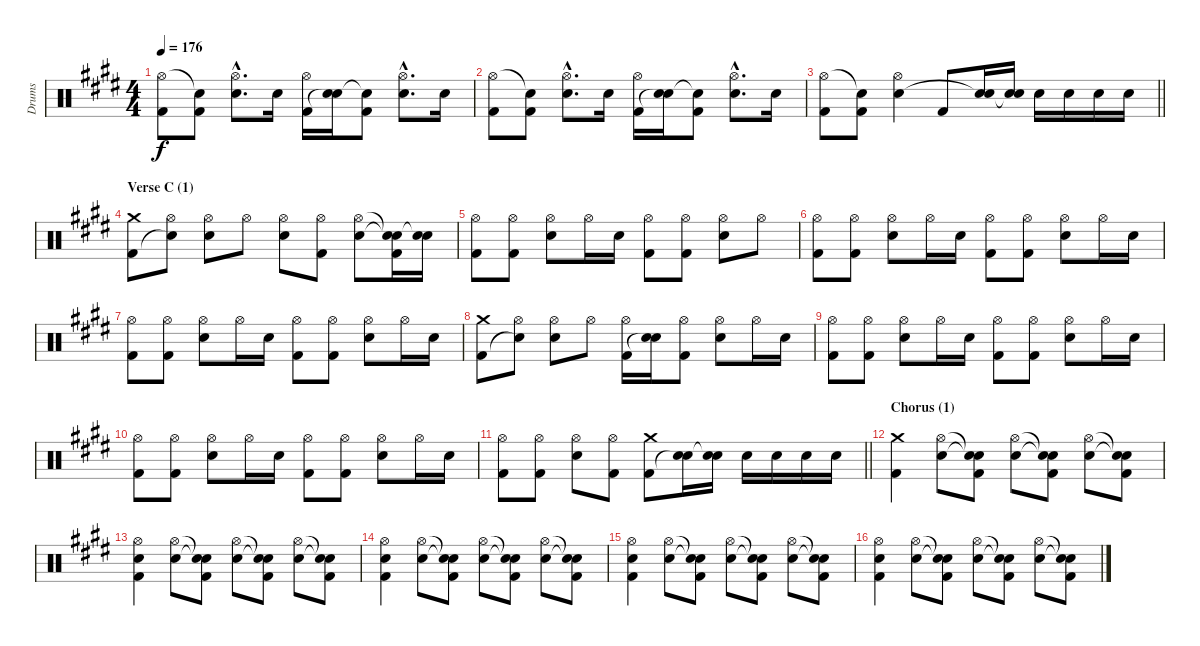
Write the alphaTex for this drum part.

\track ("Drums" "Drums") {instrument percussion}
\staff {score}
\articulation defaults
\ts (4 4)
\tempo 176
\clef neutral
\ks c#minor
("Hi-Hat (open)" "Kick (hit) 2").8{dy f} ("Snare (hit)"{t} "Kick (hit) 2").8 ("Hi-Hat (open)"{hac} "Electric Snare (hit)"{hac}).8{d} "Electric Snare (hit)".16 ("Hi-Hat (open)" "Kick (hit) 2").16 ("Electric Snare (hit)" "Snare (hit)"{t}).16 ("Snare (hit)"{t} "Kick (hit) 2").8 ("Hi-Hat (open)"{hac} "Electric Snare (hit)"{hac}).8{d} "Electric Snare (hit)".16 |
("Hi-Hat (open)" "Kick (hit) 2").8 ("Snare (hit)"{t} "Kick (hit) 2").8 ("Hi-Hat (open)"{hac} "Electric Snare (hit)"{hac}).8{d} "Electric Snare (hit)".16 ("Hi-Hat (open)" "Kick (hit) 2").16 ("Electric Snare (hit)" "Snare (hit)"{t}).16 ("Snare (hit)"{t} "Kick (hit) 2").8 ("Hi-Hat (open)"{hac} "Electric Snare (hit)"{hac}).8{d} "Electric Snare (hit)".16 |
\barLineRight lightlight
("Hi-Hat (open)" "Kick (hit) 2").8 ("Snare (hit)"{t} "Kick (hit) 2").8 ("Hi-Hat (open)" "Electric Snare (hit)").4 "Kick (hit) 2".8 ("Electric Snare (hit)" "Snare (hit)"{t}).16 ("Electric Snare (hit)" "Snare (hit)"{t}).16 "Electric Snare (hit)".16 "Electric Snare (hit)".16 "Electric Snare (hit)".16 "Electric Snare (hit)".16 |
\section ("" "Verse C (1)")
("Crash medium (hit)" "Kick (hit) 2").8 ("Hi-Hat (open)" "Snare (hit)"{t}).8 ("Hi-Hat (open)" "Electric Snare (hit)").8 "Hi-Hat (open)".8 ("Hi-Hat (open)" "Electric Snare (hit)").8 ("Hi-Hat (open)" "Kick (hit) 2").8 ("Hi-Hat (open)" "Electric Snare (hit)").8 ("Snare (hit)"{t} "Snare (hit)"{t} "Kick (hit) 2").16 ("Electric Snare (hit)" "Snare (hit)"{t}).16 |
("Hi-Hat (open)" "Kick (hit) 2").8 ("Hi-Hat (open)" "Kick (hit) 2").8 ("Hi-Hat (open)" "Electric Snare (hit)").8 "Hi-Hat (open)".16 "Electric Snare (hit)".16 ("Hi-Hat (open)" "Kick (hit) 2").8 ("Hi-Hat (open)" "Kick (hit) 2").8 ("Hi-Hat (open)" "Electric Snare (hit)").8 "Hi-Hat (open)".8 |
("Hi-Hat (open)" "Kick (hit) 2").8 ("Hi-Hat (open)" "Kick (hit) 2").8 ("Hi-Hat (open)" "Electric Snare (hit)").8 "Hi-Hat (open)".16 "Electric Snare (hit)".16 ("Hi-Hat (open)" "Kick (hit) 2").8 ("Hi-Hat (open)" "Kick (hit) 2").8 ("Hi-Hat (open)" "Electric Snare (hit)").8 "Hi-Hat (open)".16 "Electric Snare (hit)".16 |
("Hi-Hat (open)" "Kick (hit) 2").8 ("Hi-Hat (open)" "Kick (hit) 2").8 ("Hi-Hat (open)" "Electric Snare (hit)").8 "Hi-Hat (open)".16 "Electric Snare (hit)".16 ("Hi-Hat (open)" "Kick (hit) 2").8 ("Hi-Hat (open)" "Kick (hit) 2").8 ("Hi-Hat (open)" "Electric Snare (hit)").8 "Hi-Hat (open)".16 "Electric Snare (hit)".16 |
("Crash medium (hit)" "Kick (hit) 2").8 ("Hi-Hat (open)" "Snare (hit)"{t}).8 ("Hi-Hat (open)" "Electric Snare (hit)").8 "Hi-Hat (open)".8 ("Hi-Hat (open)" "Kick (hit) 2").16 ("Electric Snare (hit)" "Snare (hit)"{t}).16 ("Hi-Hat (open)" "Kick (hit) 2").8 ("Hi-Hat (open)" "Electric Snare (hit)").8 "Hi-Hat (open)".16 "Electric Snare (hit)".16 |
("Hi-Hat (open)" "Kick (hit) 2").8 ("Hi-Hat (open)" "Kick (hit) 2").8 ("Hi-Hat (open)" "Electric Snare (hit)").8 "Hi-Hat (open)".16 "Electric Snare (hit)".16 ("Hi-Hat (open)" "Kick (hit) 2").8 ("Hi-Hat (open)" "Kick (hit) 2").8 ("Hi-Hat (open)" "Electric Snare (hit)").8 "Hi-Hat (open)".16 "Electric Snare (hit)".16 |
("Hi-Hat (open)" "Kick (hit) 2").8 ("Hi-Hat (open)" "Kick (hit) 2").8 ("Hi-Hat (open)" "Electric Snare (hit)").8 "Hi-Hat (open)".16 "Electric Snare (hit)".16 ("Hi-Hat (open)" "Kick (hit) 2").8 ("Hi-Hat (open)" "Kick (hit) 2").8 ("Hi-Hat (open)" "Electric Snare (hit)").8 "Hi-Hat (open)".16 "Electric Snare (hit)".16 |
\barLineRight lightlight
("Hi-Hat (open)" "Kick (hit) 2").8 ("Hi-Hat (open)" "Kick (hit) 2").8 ("Hi-Hat (open)" "Electric Snare (hit)").8 ("Hi-Hat (open)" "Kick (hit) 2").8 ("Crash medium (hit)" "Kick (hit) 2").8 ("Electric Snare (hit)" "Snare (hit)"{t}).16 ("Electric Snare (hit)" "Snare (hit)"{t}).16 "Electric Snare (hit)".16 "Electric Snare (hit)".16 "Electric Snare (hit)".16 "Electric Snare (hit)".16 |
\section ("" "Chorus (1)")
("Crash medium (hit)" "Kick (hit) 2").4 ("Hi-Hat (open)" "Electric Snare (hit)").8 ("Snare (hit)"{t} "Snare (hit)"{t} "Kick (hit) 2").8 ("Hi-Hat (open)" "Electric Snare (hit)").8 ("Snare (hit)"{t} "Snare (hit)"{t} "Kick (hit) 2").8 ("Hi-Hat (open)" "Electric Snare (hit)").8 ("Snare (hit)"{t} "Snare (hit)"{t} "Kick (hit) 2").8 |
("Hi-Hat (open)" "Electric Snare (hit)" "Kick (hit) 2").4 ("Hi-Hat (open)" "Electric Snare (hit)").8 ("Snare (hit)"{t} "Snare (hit)"{t} "Kick (hit) 2").8 ("Hi-Hat (open)" "Electric Snare (hit)").8 ("Snare (hit)"{t} "Snare (hit)"{t} "Kick (hit) 2").8 ("Hi-Hat (open)" "Electric Snare (hit)").8 ("Snare (hit)"{t} "Snare (hit)"{t} "Kick (hit) 2").8 |
("Hi-Hat (open)" "Electric Snare (hit)" "Kick (hit) 2").4 ("Hi-Hat (open)" "Electric Snare (hit)").8 ("Snare (hit)"{t} "Snare (hit)"{t} "Kick (hit) 2").8 ("Hi-Hat (open)" "Electric Snare (hit)").8 ("Snare (hit)"{t} "Snare (hit)"{t} "Kick (hit) 2").8 ("Hi-Hat (open)" "Electric Snare (hit)").8 ("Snare (hit)"{t} "Snare (hit)"{t} "Kick (hit) 2").8 |
("Hi-Hat (open)" "Electric Snare (hit)" "Kick (hit) 2").4 ("Hi-Hat (open)" "Electric Snare (hit)").8 ("Snare (hit)"{t} "Snare (hit)"{t} "Kick (hit) 2").8 ("Hi-Hat (open)" "Electric Snare (hit)").8 ("Snare (hit)"{t} "Snare (hit)"{t} "Kick (hit) 2").8 ("Hi-Hat (open)" "Electric Snare (hit)").8 ("Snare (hit)"{t} "Snare (hit)"{t} "Kick (hit) 2").8 |
("Hi-Hat (open)" "Electric Snare (hit)" "Kick (hit) 2").4 ("Hi-Hat (open)" "Electric Snare (hit)").8 ("Snare (hit)"{t} "Snare (hit)"{t} "Kick (hit) 2").8 ("Hi-Hat (open)" "Electric Snare (hit)").8 ("Snare (hit)"{t} "Snare (hit)"{t} "Kick (hit) 2").8 ("Hi-Hat (open)" "Electric Snare (hit)").8 ("Snare (hit)"{t} "Snare (hit)"{t} "Kick (hit) 2").8
